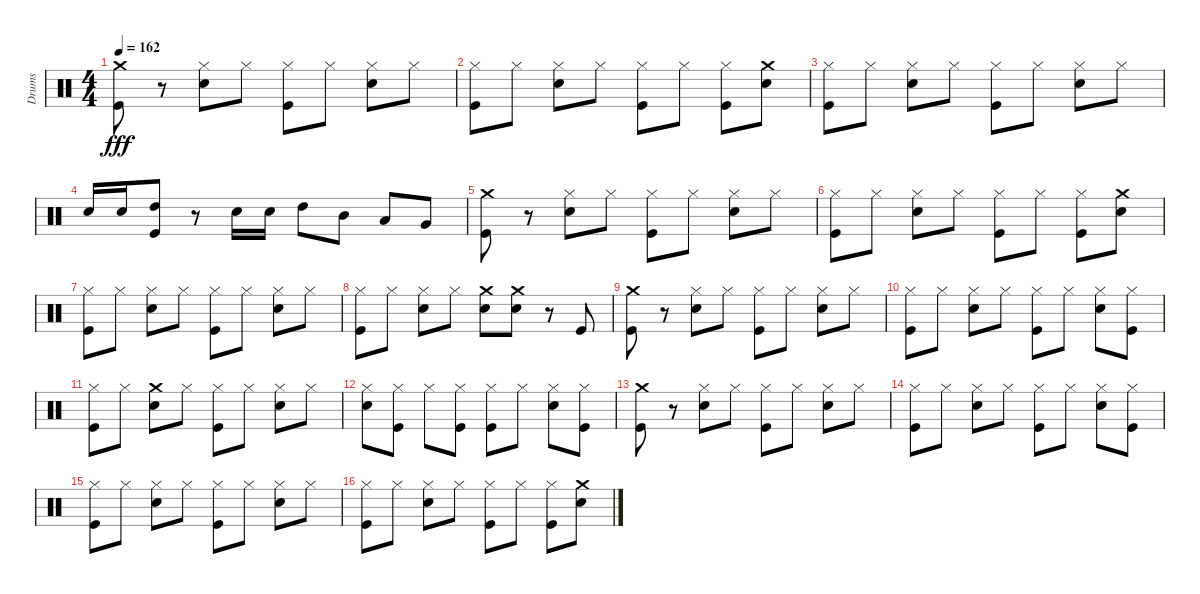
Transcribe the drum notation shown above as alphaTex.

\track ("Drums" "Drums") {instrument percussion}
\staff {score}
\articulation defaults
\ts (4 4)
\tempo 162
\clef neutral
\ks c
("Crash medium (hit)" "Kick (hit)").8{dy fff} r.8 ("Hi-Hat (closed)" "Snare (hit) 2").8 "Hi-Hat (closed)".8 ("Kick (hit)" "Hi-Hat (closed)").8 "Hi-Hat (closed)".8 ("Snare (hit) 2" "Hi-Hat (closed)").8 "Hi-Hat (closed)".8 |
("Hi-Hat (closed)" "Kick (hit)").8 "Hi-Hat (closed)".8 ("Snare (hit) 2" "Hi-Hat (closed)").8 "Hi-Hat (closed)".8 ("Hi-Hat (closed)" "Kick (hit)").8 "Hi-Hat (closed)".8 ("Kick (hit)" "Hi-Hat (closed)").8 ("Crash medium (hit)" "Snare (hit) 2").8 |
("Hi-Hat (closed)" "Kick (hit)").8 "Hi-Hat (closed)".8 ("Snare (hit) 2" "Hi-Hat (closed)").8 "Hi-Hat (closed)".8 ("Kick (hit)" "Hi-Hat (closed)").8 "Hi-Hat (closed)".8 ("Snare (hit) 2" "Hi-Hat (closed)").8 "Hi-Hat (closed)".8 |
"Snare (hit) 2".16 "Snare (hit) 2".16 ("High Tom (hit)" "Kick (hit)").8 r.8 "Snare (hit) 2".16 "Snare (hit) 2".16 "High Tom (hit)".8 "Mid Tom (hit)".8 "Low Tom (hit)".8 "Very Low Tom (hit)".8 |
("Crash medium (hit)" "Kick (hit)").8 r.8 ("Hi-Hat (closed)" "Snare (hit) 2").8 "Hi-Hat (closed)".8 ("Kick (hit)" "Hi-Hat (closed)").8 "Hi-Hat (closed)".8 ("Snare (hit) 2" "Hi-Hat (closed)").8 "Hi-Hat (closed)".8 |
("Hi-Hat (closed)" "Kick (hit)").8 "Hi-Hat (closed)".8 ("Snare (hit) 2" "Hi-Hat (closed)").8 "Hi-Hat (closed)".8 ("Kick (hit)" "Hi-Hat (closed)").8 "Hi-Hat (closed)".8 ("Kick (hit)" "Hi-Hat (closed)").8 ("Crash medium (hit)" "Snare (hit) 2").8 |
("Hi-Hat (closed)" "Kick (hit)").8 "Hi-Hat (closed)".8 ("Hi-Hat (closed)" "Snare (hit) 2").8 "Hi-Hat (closed)".8 ("Hi-Hat (closed)" "Kick (hit)").8 "Hi-Hat (closed)".8 ("Snare (hit) 2" "Hi-Hat (closed)").8 "Hi-Hat (closed)".8 |
("Hi-Hat (closed)" "Kick (hit)").8 "Hi-Hat (closed)".8 ("Snare (hit) 2" "Hi-Hat (closed)").8 "Hi-Hat (closed)".8 ("Snare (hit) 2" "Crash medium (hit)").8 ("Snare (hit) 2" "Crash medium (hit)").8 r.8 "Kick (hit)".8 |
("Crash medium (hit)" "Kick (hit)").8 r.8 ("Snare (hit) 2" "Hi-Hat (closed)").8 "Hi-Hat (closed)".8 ("Hi-Hat (closed)" "Kick (hit)").8 "Hi-Hat (closed)".8 ("Snare (hit) 2" "Hi-Hat (closed)").8 "Hi-Hat (closed)".8 |
("Hi-Hat (closed)" "Kick (hit)").8 "Hi-Hat (closed)".8 ("Snare (hit) 2" "Hi-Hat (closed)").8 "Hi-Hat (closed)".8 ("Hi-Hat (closed)" "Kick (hit)").8 "Hi-Hat (closed)".8 ("Snare (hit) 2" "Hi-Hat (closed)").8 ("Kick (hit)" "Hi-Hat (closed)").8 |
("Hi-Hat (closed)" "Kick (hit)").8 "Hi-Hat (closed)".8 ("Crash medium (hit)" "Snare (hit) 2").8 "Hi-Hat (closed)".8 ("Hi-Hat (closed)" "Kick (hit)").8 "Hi-Hat (closed)".8 ("Snare (hit) 2" "Hi-Hat (closed)").8 "Hi-Hat (closed)".8 |
("Snare (hit) 2" "Hi-Hat (closed)").8 ("Kick (hit)" "Hi-Hat (closed)").8 "Hi-Hat (closed)".8 ("Kick (hit)" "Hi-Hat (closed)").8 ("Hi-Hat (closed)" "Kick (hit)").8 "Hi-Hat (closed)".8 ("Hi-Hat (closed)" "Snare (hit) 2").8 ("Kick (hit)" "Hi-Hat (closed)").8 |
("Crash medium (hit)" "Kick (hit)").8 r.8 ("Hi-Hat (closed)" "Snare (hit) 2").8 "Hi-Hat (closed)".8 ("Kick (hit)" "Hi-Hat (closed)").8 "Hi-Hat (closed)".8 ("Snare (hit) 2" "Hi-Hat (closed)").8 "Hi-Hat (closed)".8 |
("Hi-Hat (closed)" "Kick (hit)").8 "Hi-Hat (closed)".8 ("Snare (hit) 2" "Hi-Hat (closed)").8 "Hi-Hat (closed)".8 ("Kick (hit)" "Hi-Hat (closed)").8 "Hi-Hat (closed)".8 ("Snare (hit) 2" "Hi-Hat (closed)").8 ("Kick (hit)" "Hi-Hat (closed)").8 |
("Hi-Hat (closed)" "Kick (hit)").8 "Hi-Hat (closed)".8 ("Snare (hit) 2" "Hi-Hat (closed)").8 "Hi-Hat (closed)".8 ("Kick (hit)" "Hi-Hat (closed)").8 "Hi-Hat (closed)".8 ("Snare (hit) 2" "Hi-Hat (closed)").8 "Hi-Hat (closed)".8 |
("Hi-Hat (closed)" "Kick (hit)").8 "Hi-Hat (closed)".8 ("Snare (hit) 2" "Hi-Hat (closed)").8 "Hi-Hat (closed)".8 ("Hi-Hat (closed)" "Kick (hit)").8 "Hi-Hat (closed)".8 ("Kick (hit)" "Hi-Hat (closed)").8 ("Crash medium (hit)" "Snare (hit) 2").8
